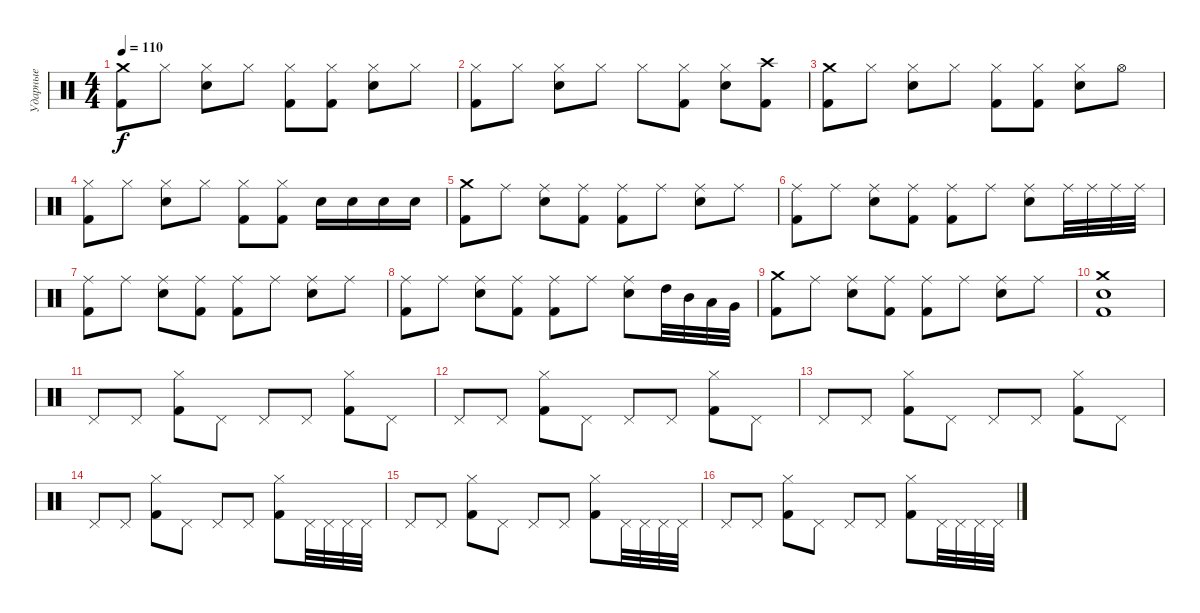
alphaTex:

\track ("Ударные" "Ударные") {instrument percussion}
\staff {score}
\articulation defaults
\ts (4 4)
\tempo 110
\clef neutral
\ks c
("Crash medium (hit)" "Kick (hit) 2").8{dy f} "Hi-Hat (closed)".8 ("Hi-Hat (closed)" "Electric Snare (hit)").8 "Hi-Hat (closed)".8 ("Hi-Hat (closed)" "Kick (hit) 2").8 ("Hi-Hat (closed)" "Kick (hit) 2").8 ("Hi-Hat (closed)" "Electric Snare (hit)").8 "Hi-Hat (closed)".8 |
("Hi-Hat (closed)" "Kick (hit) 2").8 "Hi-Hat (closed)".8 ("Hi-Hat (closed)" "Electric Snare (hit)").8 "Hi-Hat (closed)".8 "Hi-Hat (closed)".8 ("Hi-Hat (closed)" "Kick (hit) 2").8 ("Hi-Hat (closed)" "Electric Snare (hit)").8 ("Crash high (hit)" "Kick (hit) 2").8 |
("Crash medium (hit)" "Kick (hit) 2").8 "Hi-Hat (closed)".8 ("Hi-Hat (closed)" "Electric Snare (hit)").8 "Hi-Hat (closed)".8 ("Hi-Hat (closed)" "Kick (hit) 2").8 ("Hi-Hat (closed)" "Kick (hit) 2").8 ("Hi-Hat (closed)" "Electric Snare (hit)").8 "Hi-Hat (open)".8 |
("Hi-Hat (closed)" "Kick (hit) 2").8 "Hi-Hat (closed)".8 ("Hi-Hat (closed)" "Electric Snare (hit)").8 "Hi-Hat (closed)".8 ("Hi-Hat (closed)" "Kick (hit) 2").8 ("Hi-Hat (closed)" "Kick (hit) 2").8 "Electric Snare (hit)".16 "Electric Snare (hit)".16 "Electric Snare (hit)".16 "Electric Snare (hit)".16 |
("Crash medium (hit)" "Kick (hit) 2").8 "Ride (middle)".8 ("Ride (middle)" "Electric Snare (hit)").8 ("Ride (middle)" "Kick (hit) 2").8 ("Ride (middle)" "Kick (hit) 2").8 "Ride (middle)".8 ("Ride (middle)" "Electric Snare (hit)").8 "Ride (middle)".8 |
("Ride (middle)" "Kick (hit) 2").8 "Ride (middle)".8 ("Ride (middle)" "Electric Snare (hit)").8 ("Ride (middle)" "Kick (hit) 2").8 ("Ride (middle)" "Kick (hit) 2").8 "Ride (middle)".8 ("Ride (middle)" "Electric Snare (hit)").8 "Ride (middle)".32 "Ride (middle)".32 "Ride (middle)".32 "Ride (middle)".32 |
("Ride (middle)" "Kick (hit) 2").8 "Ride (middle)".8 ("Ride (middle)" "Electric Snare (hit)").8 ("Ride (middle)" "Kick (hit) 2").8 ("Ride (middle)" "Kick (hit) 2").8 "Ride (middle)".8 ("Ride (middle)" "Electric Snare (hit)").8 "Ride (middle)".8 |
("Ride (middle)" "Kick (hit) 2").8 "Ride (middle)".8 ("Ride (middle)" "Electric Snare (hit)").8 ("Ride (middle)" "Kick (hit) 2").8 ("Ride (middle)" "Kick (hit) 2").8 "Ride (middle)".8 ("Ride (middle)" "Electric Snare (hit)").8 "High Tom (hit)".32 "Mid Tom (hit)".32 "Low Tom (hit)".32 "Very Low Tom (hit)".32 |
("Crash medium (hit)" "Kick (hit) 2").8 "Ride (middle)".8 ("Ride (middle)" "Electric Snare (hit)").8 ("Ride (middle)" "Kick (hit) 2").8 ("Ride (middle)" "Kick (hit) 2").8 "Ride (middle)".8 ("Ride (middle)" "Electric Snare (hit)").8 "Ride (middle)".8 |
("Crash medium (hit)" "Electric Snare (hit)" "Kick (hit) 2").1 |
"Pedal Hi-Hat (hit)".8 "Pedal Hi-Hat (hit)".8 ("Hi-Hat (closed)" "Kick (hit) 2").8 "Pedal Hi-Hat (hit)".8 "Pedal Hi-Hat (hit)".8 "Pedal Hi-Hat (hit)".8 ("Hi-Hat (closed)" "Kick (hit) 2").8 "Pedal Hi-Hat (hit)".8 |
"Pedal Hi-Hat (hit)".8 "Pedal Hi-Hat (hit)".8 ("Hi-Hat (closed)" "Kick (hit) 2").8 "Pedal Hi-Hat (hit)".8 "Pedal Hi-Hat (hit)".8 "Pedal Hi-Hat (hit)".8 ("Hi-Hat (closed)" "Kick (hit) 2").8 "Pedal Hi-Hat (hit)".8 |
"Pedal Hi-Hat (hit)".8 "Pedal Hi-Hat (hit)".8 ("Hi-Hat (closed)" "Kick (hit) 2").8 "Pedal Hi-Hat (hit)".8 "Pedal Hi-Hat (hit)".8 "Pedal Hi-Hat (hit)".8 ("Hi-Hat (closed)" "Kick (hit) 2").8 "Pedal Hi-Hat (hit)".8 |
"Pedal Hi-Hat (hit)".8 "Pedal Hi-Hat (hit)".8 ("Hi-Hat (closed)" "Kick (hit) 2").8 "Pedal Hi-Hat (hit)".8 "Pedal Hi-Hat (hit)".8 "Pedal Hi-Hat (hit)".8 ("Hi-Hat (closed)" "Kick (hit) 2").8 "Pedal Hi-Hat (hit)".32 "Pedal Hi-Hat (hit)".32 "Pedal Hi-Hat (hit)".32 "Pedal Hi-Hat (hit)".32 |
"Pedal Hi-Hat (hit)".8 "Pedal Hi-Hat (hit)".8 ("Hi-Hat (closed)" "Kick (hit) 2").8 "Pedal Hi-Hat (hit)".8 "Pedal Hi-Hat (hit)".8 "Pedal Hi-Hat (hit)".8 ("Hi-Hat (closed)" "Kick (hit) 2").8 "Pedal Hi-Hat (hit)".32 "Pedal Hi-Hat (hit)".32 "Pedal Hi-Hat (hit)".32 "Pedal Hi-Hat (hit)".32 |
"Pedal Hi-Hat (hit)".8 "Pedal Hi-Hat (hit)".8 ("Hi-Hat (closed)" "Kick (hit) 2").8 "Pedal Hi-Hat (hit)".8 "Pedal Hi-Hat (hit)".8 "Pedal Hi-Hat (hit)".8 ("Hi-Hat (closed)" "Kick (hit) 2").8 "Pedal Hi-Hat (hit)".32 "Pedal Hi-Hat (hit)".32 "Pedal Hi-Hat (hit)".32 "Pedal Hi-Hat (hit)".32
